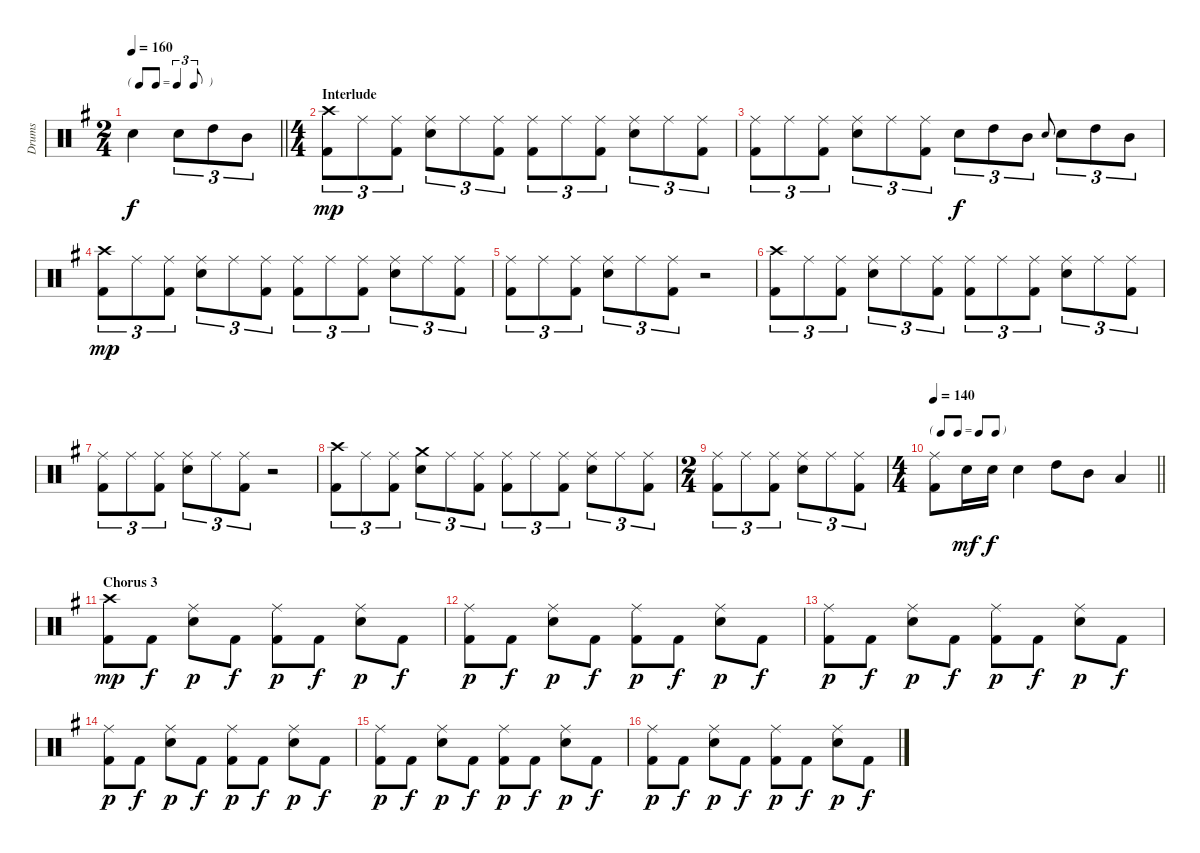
\track ("Drums" "Drums") {instrument percussion}
\staff {score}
\articulation defaults
\ts (2 4)
\tf triplet8th
\tempo 60
\tempo 160
\clef neutral
\barLineRight lightlight
\ks g "Electric Snare (hit)".4{dy f} "Electric Snare (hit)".8{tu (3 2)} "High Tom (hit)".8{tu (3 2)} "Mid Tom (hit)".8{tu (3 2)}
|
\ts (4 4)
\section ("" "Interlude")
("Kick (hit) 2" "Crash high (hit)").8{tu (3 2) dy mp} "Ride (middle)".8{tu (3 2)} ("Ride (middle)" "Kick (hit) 2").8{tu (3 2)} ("Ride (middle)" "Electric Snare (hit)").8{tu (3 2)} "Ride (middle)".8{tu (3 2)} ("Ride (middle)" "Kick (hit) 2").8{tu (3 2)} ("Ride (middle)" "Kick (hit) 2").8{tu (3 2)} "Ride (middle)".8{tu (3 2)} ("Ride (middle)" "Kick (hit) 2").8{tu (3 2)} ("Ride (middle)" "Electric Snare (hit)").8{tu (3 2)} "Ride (middle)".8{tu (3 2)} ("Ride (middle)" "Kick (hit) 2").8{tu (3 2)} |
("Ride (middle)" "Kick (hit) 2").8{tu (3 2)} "Ride (middle)".8{tu (3 2)} ("Ride (middle)" "Kick (hit) 2").8{tu (3 2)} ("Ride (middle)" "Electric Snare (hit)").8{tu (3 2)} "Ride (middle)".8{tu (3 2)} ("Ride (middle)" "Kick (hit) 2").8{tu (3 2)} "Electric Snare (hit)".8{tu (3 2) dy f} "High Tom (hit)".8{tu (3 2)} "Mid Tom (hit)".8{tu (3 2)} "Electric Snare (hit)".8{gr onbeat} "Electric Snare (hit)".8{tu (3 2)} "High Tom (hit)".8{tu (3 2)} "Mid Tom (hit)".8{tu (3 2)} |
("Kick (hit) 2" "Crash high (hit)").8{tu (3 2) dy mp} "Ride (middle)".8{tu (3 2)} ("Ride (middle)" "Kick (hit) 2").8{tu (3 2)} ("Ride (middle)" "Electric Snare (hit)").8{tu (3 2)} "Ride (middle)".8{tu (3 2)} ("Ride (middle)" "Kick (hit) 2").8{tu (3 2)} ("Ride (middle)" "Kick (hit) 2").8{tu (3 2)} "Ride (middle)".8{tu (3 2)} ("Ride (middle)" "Kick (hit) 2").8{tu (3 2)} ("Ride (middle)" "Electric Snare (hit)").8{tu (3 2)} "Ride (middle)".8{tu (3 2)} ("Ride (middle)" "Kick (hit) 2").8{tu (3 2)} |
("Ride (middle)" "Kick (hit) 2").8{tu (3 2)} "Ride (middle)".8{tu (3 2)} ("Ride (middle)" "Kick (hit) 2").8{tu (3 2)} ("Ride (middle)" "Electric Snare (hit)").8{tu (3 2)} "Ride (middle)".8{tu (3 2)} ("Ride (middle)" "Kick (hit) 2").8{tu (3 2)} r.2 |
("Kick (hit) 2" "Crash high (hit)").8{tu (3 2)} "Ride (middle)".8{tu (3 2)} ("Ride (middle)" "Kick (hit) 2").8{tu (3 2)} ("Ride (middle)" "Electric Snare (hit)").8{tu (3 2)} "Ride (middle)".8{tu (3 2)} ("Ride (middle)" "Kick (hit) 2").8{tu (3 2)} ("Ride (middle)" "Kick (hit) 2").8{tu (3 2)} "Ride (middle)".8{tu (3 2)} ("Ride (middle)" "Kick (hit) 2").8{tu (3 2)} ("Ride (middle)" "Electric Snare (hit)").8{tu (3 2)} "Ride (middle)".8{tu (3 2)} ("Ride (middle)" "Kick (hit) 2").8{tu (3 2)} |
("Ride (middle)" "Kick (hit) 2").8{tu (3 2)} "Ride (middle)".8{tu (3 2)} ("Ride (middle)" "Kick (hit) 2").8{tu (3 2)} ("Ride (middle)" "Electric Snare (hit)").8{tu (3 2)} "Ride (middle)".8{tu (3 2)} ("Ride (middle)" "Kick (hit) 2").8{tu (3 2)} r.2 |
("Kick (hit) 2" "Crash high (hit)").8{tu (3 2)} "Ride (middle)".8{tu (3 2)} ("Ride (middle)" "Kick (hit) 2").8{tu (3 2)} ("Crash medium (hit)" "Electric Snare (hit)").8{tu (3 2)} "Ride (middle)".8{tu (3 2)} ("Ride (middle)" "Kick (hit) 2").8{tu (3 2)} ("Ride (middle)" "Kick (hit) 2").8{tu (3 2)} "Ride (middle)".8{tu (3 2)} ("Ride (middle)" "Kick (hit) 2").8{tu (3 2)} ("Ride (middle)" "Electric Snare (hit)").8{tu (3 2)} "Ride (middle)".8{tu (3 2)} ("Ride (middle)" "Kick (hit) 2").8{tu (3 2)} |
\ts (2 4)
("Ride (middle)" "Kick (hit) 2").8{tu (3 2)} "Ride (middle)".8{tu (3 2)} ("Ride (middle)" "Kick (hit) 2").8{tu (3 2)} ("Ride (middle)" "Electric Snare (hit)").8{tu (3 2)} "Ride (middle)".8{tu (3 2)} ("Ride (middle)" "Kick (hit) 2").8{tu (3 2)} |
\ts (4 4)
\tf none
\tempo 140
\barLineRight lightlight
("Kick (hit) 2" "Ride (middle)").8 "Electric Snare (hit)".16{dy mf} "Electric Snare (hit)".16{dy f} "Electric Snare (hit)".4 "High Tom (hit)".8 "Mid Tom (hit)".8 "Low Tom (hit)".4 |
\section ("" "Chorus 3")
("Kick (hit) 2" "Crash high (hit)").8{dy mp} "Kick (hit) 2".8{dy f} ("Electric Snare (hit)" "Ride (middle)").8{dy p} "Kick (hit) 2".8{dy f} ("Kick (hit) 2" "Ride (middle)").8{dy p} "Kick (hit) 2".8{dy f} ("Electric Snare (hit)" "Ride (middle)").8{dy p} "Kick (hit) 2".8{dy f} |
("Kick (hit) 2" "Ride (middle)").8{dy p} "Kick (hit) 2".8{dy f} ("Electric Snare (hit)" "Ride (middle)").8{dy p} "Kick (hit) 2".8{dy f} ("Kick (hit) 2" "Ride (middle)").8{dy p} "Kick (hit) 2".8{dy f} ("Electric Snare (hit)" "Ride (middle)").8{dy p} "Kick (hit) 2".8{dy f} |
("Kick (hit) 2" "Ride (middle)").8{dy p} "Kick (hit) 2".8{dy f} ("Electric Snare (hit)" "Ride (middle)").8{dy p} "Kick (hit) 2".8{dy f} ("Kick (hit) 2" "Ride (middle)").8{dy p} "Kick (hit) 2".8{dy f} ("Electric Snare (hit)" "Ride (middle)").8{dy p} "Kick (hit) 2".8{dy f} |
("Kick (hit) 2" "Ride (middle)").8{dy p} "Kick (hit) 2".8{dy f} ("Electric Snare (hit)" "Ride (middle)").8{dy p} "Kick (hit) 2".8{dy f} ("Kick (hit) 2" "Ride (middle)").8{dy p} "Kick (hit) 2".8{dy f} ("Electric Snare (hit)" "Ride (middle)").8{dy p} "Kick (hit) 2".8{dy f} |
("Kick (hit) 2" "Ride (middle)").8{dy p} "Kick (hit) 2".8{dy f} ("Electric Snare (hit)" "Ride (middle)").8{dy p} "Kick (hit) 2".8{dy f} ("Kick (hit) 2" "Ride (middle)").8{dy p} "Kick (hit) 2".8{dy f} ("Electric Snare (hit)" "Ride (middle)").8{dy p} "Kick (hit) 2".8{dy f} |
("Kick (hit) 2" "Ride (middle)").8{dy p} "Kick (hit) 2".8{dy f} ("Electric Snare (hit)" "Ride (middle)").8{dy p} "Kick (hit) 2".8{dy f} ("Kick (hit) 2" "Ride (middle)").8{dy p} "Kick (hit) 2".8{dy f} ("Electric Snare (hit)" "Ride (middle)").8{dy p} "Kick (hit) 2".8{dy f}
